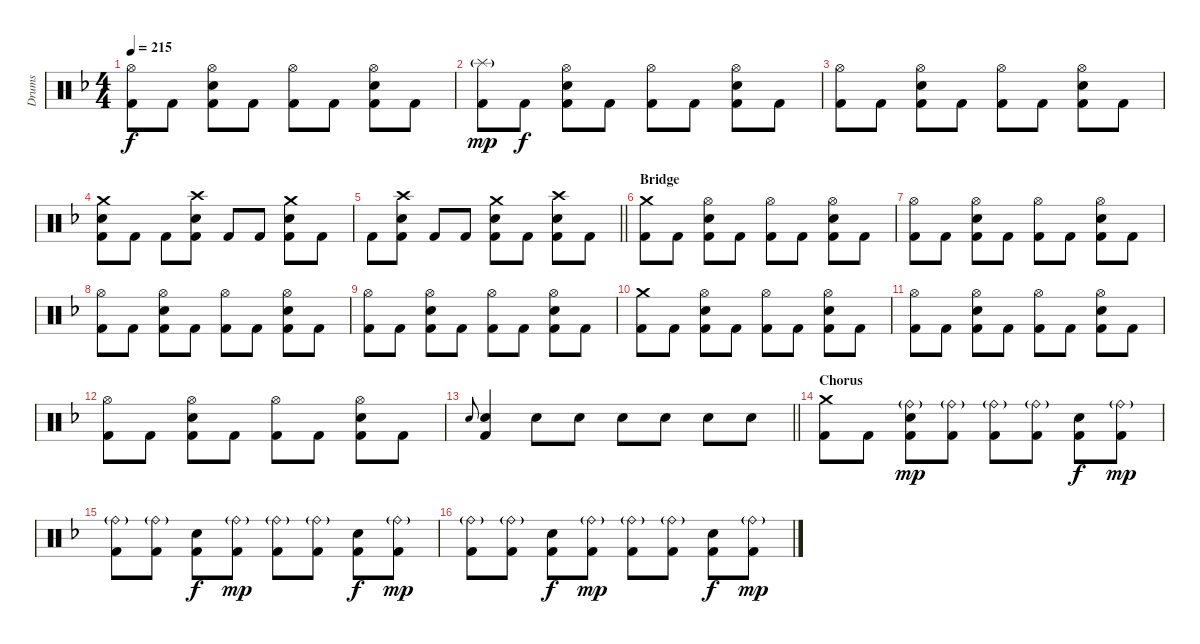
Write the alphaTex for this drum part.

\track ("Drums" "Drums") {instrument percussion}
\staff {score}
\articulation defaults
\ts (4 4)
\tempo 215
\clef neutral
\ks f
("Hi-Hat (open)" "Kick (hit) 2").8{dy f} "Kick (hit) 2".8 ("Hi-Hat (open)" "Snare (hit) 2" "Kick (hit) 2").8 "Kick (hit) 2".8 ("Hi-Hat (open)" "Kick (hit) 2").8 "Kick (hit) 2".8 ("Hi-Hat (open)" "Snare (hit) 2" "Kick (hit) 2").8 "Kick (hit) 2".8 |
("Splash (hit)"{g} "Kick (hit) 2").8{dy mp} "Kick (hit) 2".8{dy f} ("Hi-Hat (open)" "Snare (hit) 2" "Kick (hit) 2").8 "Kick (hit) 2".8 ("Hi-Hat (open)" "Kick (hit) 2").8 "Kick (hit) 2".8 ("Hi-Hat (open)" "Snare (hit) 2" "Kick (hit) 2").8 "Kick (hit) 2".8 |
("Hi-Hat (open)" "Kick (hit) 2").8 "Kick (hit) 2".8 ("Hi-Hat (open)" "Snare (hit) 2" "Kick (hit) 2").8 "Kick (hit) 2".8 ("Hi-Hat (open)" "Kick (hit) 2").8 "Kick (hit) 2".8 ("Hi-Hat (open)" "Snare (hit) 2" "Kick (hit) 2").8 "Kick (hit) 2".8 |
("Crash medium (hit)" "Snare (hit) 2" "Kick (hit) 2").8 "Kick (hit) 2".8 "Kick (hit) 2".8 ("Crash high (hit)" "Snare (hit) 2" "Kick (hit) 2").8 "Kick (hit) 2".8 "Kick (hit) 2".8 ("Crash medium (hit)" "Snare (hit) 2" "Kick (hit) 2").8 "Kick (hit) 2".8 |
\barLineRight lightlight "Kick (hit) 2".8
("Crash high (hit)" "Snare (hit) 2" "Kick (hit) 2").8 "Kick (hit) 2".8 "Kick (hit) 2".8 ("Crash medium (hit)" "Snare (hit) 2" "Kick (hit) 2").8 "Kick (hit) 2".8 ("Crash high (hit)" "Snare (hit) 2" "Kick (hit) 2").8 "Kick (hit) 2".8 |
\section ("" "Bridge")
("Crash medium (hit)" "Kick (hit) 2").8 "Kick (hit) 2".8 ("Hi-Hat (open)" "Snare (hit) 2" "Kick (hit) 2").8 "Kick (hit) 2".8 ("Hi-Hat (open)" "Kick (hit) 2").8 "Kick (hit) 2".8 ("Hi-Hat (open)" "Snare (hit) 2" "Kick (hit) 2").8 "Kick (hit) 2".8 |
("Hi-Hat (open)" "Kick (hit) 2").8 "Kick (hit) 2".8 ("Hi-Hat (open)" "Snare (hit) 2" "Kick (hit) 2").8 "Kick (hit) 2".8 ("Hi-Hat (open)" "Kick (hit) 2").8 "Kick (hit) 2".8 ("Hi-Hat (open)" "Snare (hit) 2" "Kick (hit) 2").8 "Kick (hit) 2".8 |
("Hi-Hat (open)" "Kick (hit) 2").8 "Kick (hit) 2".8 ("Hi-Hat (open)" "Snare (hit) 2" "Kick (hit) 2").8 "Kick (hit) 2".8 ("Hi-Hat (open)" "Kick (hit) 2").8 "Kick (hit) 2".8 ("Hi-Hat (open)" "Snare (hit) 2" "Kick (hit) 2").8 "Kick (hit) 2".8 |
("Hi-Hat (open)" "Kick (hit) 2").8 "Kick (hit) 2".8 ("Hi-Hat (open)" "Snare (hit) 2" "Kick (hit) 2").8 "Kick (hit) 2".8 ("Hi-Hat (open)" "Kick (hit) 2").8 "Kick (hit) 2".8 ("Hi-Hat (open)" "Snare (hit) 2" "Kick (hit) 2").8 "Kick (hit) 2".8 |
("Crash medium (hit)" "Kick (hit) 2").8 "Kick (hit) 2".8 ("Hi-Hat (open)" "Snare (hit) 2" "Kick (hit) 2").8 "Kick (hit) 2".8 ("Hi-Hat (open)" "Kick (hit) 2").8 "Kick (hit) 2".8 ("Hi-Hat (open)" "Snare (hit) 2" "Kick (hit) 2").8 "Kick (hit) 2".8 |
("Hi-Hat (open)" "Kick (hit) 2").8 "Kick (hit) 2".8 ("Hi-Hat (open)" "Snare (hit) 2" "Kick (hit) 2").8 "Kick (hit) 2".8 ("Hi-Hat (open)" "Kick (hit) 2").8 "Kick (hit) 2".8 ("Hi-Hat (open)" "Snare (hit) 2" "Kick (hit) 2").8 "Kick (hit) 2".8 |
("Hi-Hat (open)" "Kick (hit) 2").8 "Kick (hit) 2".8 ("Hi-Hat (open)" "Snare (hit) 2" "Kick (hit) 2").8 "Kick (hit) 2".8 ("Hi-Hat (open)" "Kick (hit) 2").8 "Kick (hit) 2".8 ("Hi-Hat (open)" "Snare (hit) 2" "Kick (hit) 2").8 "Kick (hit) 2".8 |
\barLineRight lightlight "Snare (hit) 2".8{gr onbeat}
("Snare (hit) 2" "Kick (hit) 2").4 "Snare (hit) 2".8 "Snare (hit) 2".8 "Snare (hit) 2".8 "Snare (hit) 2".8 "Snare (hit) 2".8 "Snare (hit) 2".8 |
\section ("" "Chorus")
("Crash medium (hit)" "Kick (hit) 2").8 "Kick (hit) 2".8 ("Ride (bell)"{g} "Snare (hit) 2" "Kick (hit) 2").8{dy mp} ("Ride (bell)"{g} "Kick (hit) 2").8 ("Ride (bell)"{g} "Kick (hit) 2").8 ("Ride (bell)"{g} "Kick (hit) 2").8 ("Snare (hit) 2" "Kick (hit) 2").8{dy f} ("Ride (bell)"{g} "Kick (hit) 2").8{dy mp} |
("Ride (bell)"{g} "Kick (hit) 2").8 ("Ride (bell)"{g} "Kick (hit) 2").8 ("Snare (hit) 2" "Kick (hit) 2").8{dy f} ("Ride (bell)"{g} "Kick (hit) 2").8{dy mp} ("Ride (bell)"{g} "Kick (hit) 2").8 ("Ride (bell)"{g} "Kick (hit) 2").8 ("Snare (hit) 2" "Kick (hit) 2").8{dy f} ("Ride (bell)"{g} "Kick (hit) 2").8{dy mp} |
("Ride (bell)"{g} "Kick (hit) 2").8 ("Ride (bell)"{g} "Kick (hit) 2").8 ("Snare (hit) 2" "Kick (hit) 2").8{dy f} ("Ride (bell)"{g} "Kick (hit) 2").8{dy mp} ("Ride (bell)"{g} "Kick (hit) 2").8 ("Ride (bell)"{g} "Kick (hit) 2").8 ("Snare (hit) 2" "Kick (hit) 2").8{dy f} ("Ride (bell)"{g} "Kick (hit) 2").8{dy mp}
